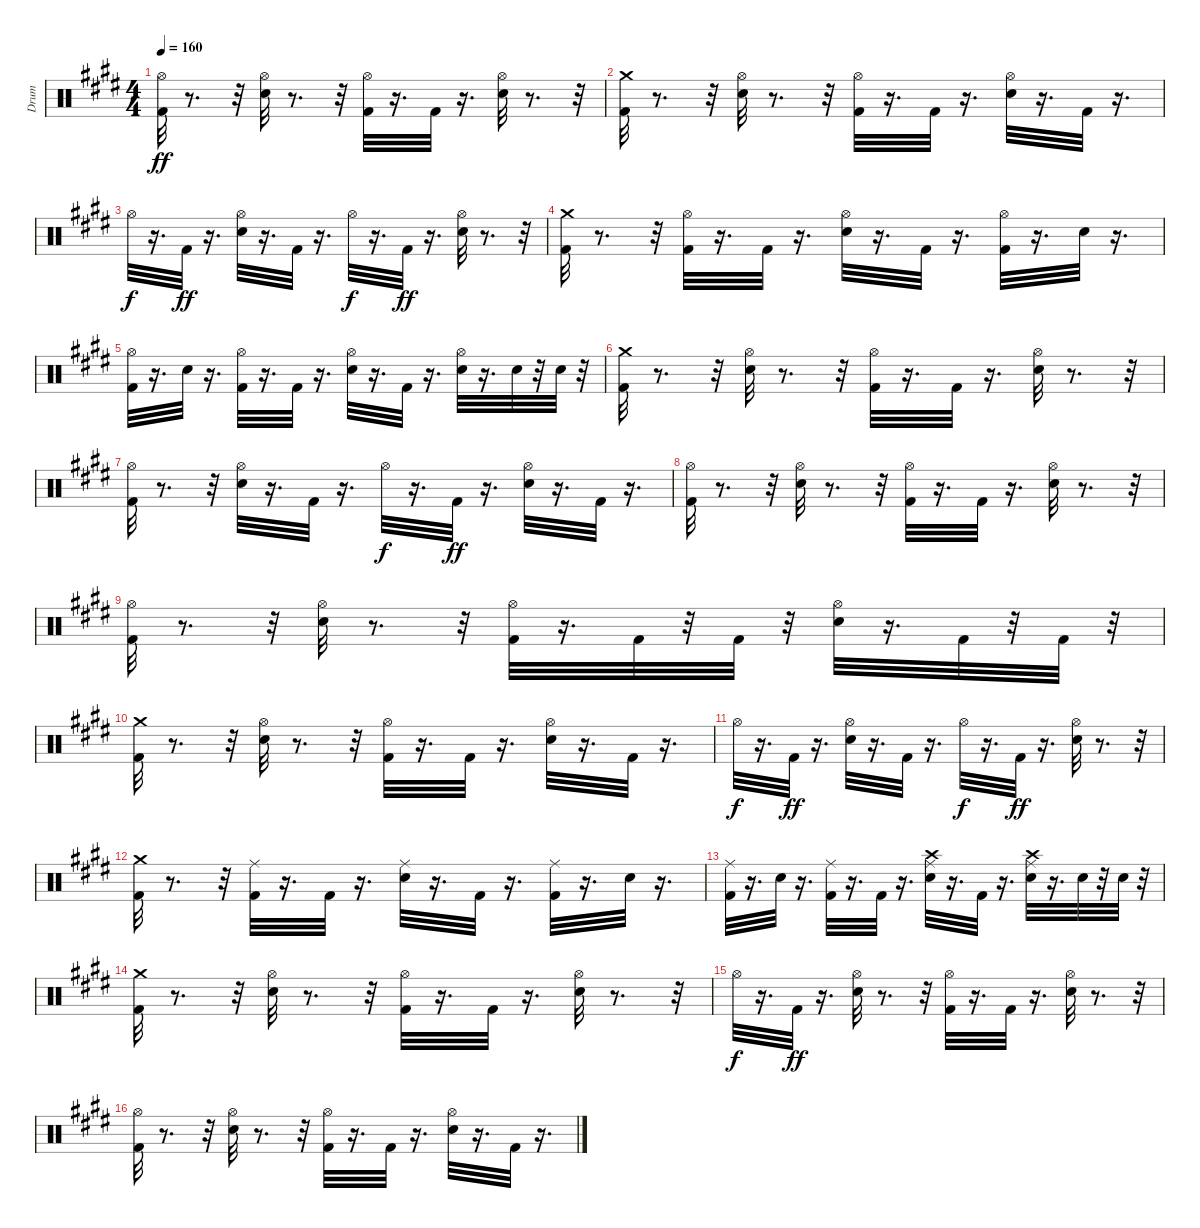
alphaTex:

\track ("Drum" "Drum") {instrument percussion}
\staff {score}
\articulation defaults
\ts (4 4)
\tempo 160
\clef neutral
\ks e
("Kick (hit) 2" "Hi-Hat (open)").32{dy ff} r.8{d} r.32 ("Electric Snare (hit)" "Hi-Hat (open)").32 r.8{d} r.32 ("Kick (hit) 2" "Hi-Hat (open)").32 r.16{d} "Kick (hit) 2".32 r.16{d} ("Electric Snare (hit)" "Hi-Hat (open)").32 r.8{d} r.32 |
("Crash medium (hit)" "Kick (hit) 2").32 r.8{d} r.32 ("Electric Snare (hit)" "Hi-Hat (open)").32 r.8{d} r.32 ("Kick (hit) 2" "Hi-Hat (open)").32 r.16{d} "Kick (hit) 2".32 r.16{d} ("Electric Snare (hit)" "Hi-Hat (open)").32 r.16{d} "Kick (hit) 2".32 r.16{d} |
"Hi-Hat (open)".32{dy f} r.16{d} "Kick (hit) 2".32{dy ff} r.16{d} ("Electric Snare (hit)" "Hi-Hat (open)").32 r.16{d} "Kick (hit) 2".32 r.16{d} "Hi-Hat (open)".32{dy f} r.16{d} "Kick (hit) 2".32{dy ff} r.16{d} ("Electric Snare (hit)" "Hi-Hat (open)").32 r.8{d} r.32 |
("Crash medium (hit)" "Kick (hit) 2").32 r.8{d} r.32 ("Kick (hit) 2" "Hi-Hat (open)").32 r.16{d} "Kick (hit) 2".32 r.16{d} ("Electric Snare (hit)" "Hi-Hat (open)").32 r.16{d} "Kick (hit) 2".32 r.16{d} ("Kick (hit) 2" "Hi-Hat (open)").32 r.16{d} "Electric Snare (hit)".32 r.16{d} |
("Kick (hit) 2" "Hi-Hat (open)").32 r.16{d} "Electric Snare (hit)".32 r.16{d} ("Kick (hit) 2" "Hi-Hat (open)").32 r.16{d} "Kick (hit) 2".32 r.16{d} ("Electric Snare (hit)" "Hi-Hat (open)").32 r.16{d} "Kick (hit) 2".32 r.16{d} ("Electric Snare (hit)" "Hi-Hat (open)").32 r.16{d} "Electric Snare (hit)".32 r.32 "Electric Snare (hit)".32 r.32 |
("Crash medium (hit)" "Kick (hit) 2").32 r.8{d} r.32 ("Electric Snare (hit)" "Hi-Hat (open)").32 r.8{d} r.32 ("Kick (hit) 2" "Hi-Hat (open)").32 r.16{d} "Kick (hit) 2".32 r.16{d} ("Electric Snare (hit)" "Hi-Hat (open)").32 r.8{d} r.32 |
("Kick (hit) 2" "Hi-Hat (open)").32 r.8{d} r.32 ("Electric Snare (hit)" "Hi-Hat (open)").32 r.16{d} "Kick (hit) 2".32 r.16{d} "Hi-Hat (open)".32{dy f} r.16{d} "Kick (hit) 2".32{dy ff} r.16{d} ("Electric Snare (hit)" "Hi-Hat (open)").32 r.16{d} "Kick (hit) 2".32 r.16{d} |
("Hi-Hat (open)" "Kick (hit) 2").32 r.8{d} r.32 ("Electric Snare (hit)" "Hi-Hat (open)").32 r.8{d} r.32 ("Kick (hit) 2" "Hi-Hat (open)").32 r.16{d} "Kick (hit) 2".32 r.16{d} ("Electric Snare (hit)" "Hi-Hat (open)").32 r.8{d} r.32 |
("Kick (hit) 2" "Hi-Hat (open)").32 r.8{d} r.32 ("Electric Snare (hit)" "Hi-Hat (open)").32 r.8{d} r.32 ("Kick (hit) 2" "Hi-Hat (open)").32 r.16{d} "Kick (hit) 2".32 r.32 "Kick (hit) 2".32 r.32 ("Electric Snare (hit)" "Hi-Hat (open)").32 r.16{d} "Kick (hit) 2".32 r.32 "Kick (hit) 2".32 r.32 |
("Crash medium (hit)" "Kick (hit) 2").32 r.8{d} r.32 ("Electric Snare (hit)" "Hi-Hat (open)").32 r.8{d} r.32 ("Kick (hit) 2" "Hi-Hat (open)").32 r.16{d} "Kick (hit) 2".32 r.16{d} ("Electric Snare (hit)" "Hi-Hat (open)").32 r.16{d} "Kick (hit) 2".32 r.16{d} |
"Hi-Hat (open)".32{dy f} r.16{d} "Kick (hit) 2".32{dy ff} r.16{d} ("Electric Snare (hit)" "Hi-Hat (open)").32 r.16{d} "Kick (hit) 2".32 r.16{d} "Hi-Hat (open)".32{dy f} r.16{d} "Kick (hit) 2".32{dy ff} r.16{d} ("Electric Snare (hit)" "Hi-Hat (open)").32 r.8{d} r.32 |
("Crash medium (hit)" "Kick (hit) 2").32 r.8{d} r.32 ("Kick (hit) 2" "Ride (middle)").32 r.16{d} "Kick (hit) 2".32 r.16{d} ("Electric Snare (hit)" "Ride (middle)").32 r.16{d} "Kick (hit) 2".32 r.16{d} ("Kick (hit) 2" "Ride (middle)").32 r.16{d} "Electric Snare (hit)".32 r.16{d} |
("Kick (hit) 2" "Ride (middle)").32 r.16{d} "Electric Snare (hit)".32 r.16{d} ("Kick (hit) 2" "Ride (middle)").32 r.16{d} "Kick (hit) 2".32 r.16{d} ("Crash high (hit)" "Electric Snare (hit)" "Ride (middle)").32 r.16{d} "Kick (hit) 2".32 r.16{d} ("Crash high (hit)" "Electric Snare (hit)" "Ride (middle)").32 r.16{d} "Electric Snare (hit)".32 r.32 "Electric Snare (hit)".32 r.32 |
("Crash medium (hit)" "Kick (hit) 2").32 r.8{d} r.32 ("Electric Snare (hit)" "Hi-Hat (open)").32 r.8{d} r.32 ("Kick (hit) 2" "Hi-Hat (open)").32 r.16{d} "Kick (hit) 2".32 r.16{d} ("Electric Snare (hit)" "Hi-Hat (open)").32 r.8{d} r.32 |
"Hi-Hat (open)".32{dy f} r.16{d} "Kick (hit) 2".32{dy ff} r.16{d} ("Electric Snare (hit)" "Hi-Hat (open)").32 r.8{d} r.32 ("Kick (hit) 2" "Hi-Hat (open)").32 r.16{d} "Kick (hit) 2".32 r.16{d} ("Electric Snare (hit)" "Hi-Hat (open)").32 r.8{d} r.32 |
("Kick (hit) 2" "Hi-Hat (open)").32 r.8{d} r.32 ("Electric Snare (hit)" "Hi-Hat (open)").32 r.8{d} r.32 ("Kick (hit) 2" "Hi-Hat (open)").32 r.16{d} "Kick (hit) 2".32 r.16{d} ("Electric Snare (hit)" "Hi-Hat (open)").32 r.16{d} "Kick (hit) 2".32 r.16{d}
